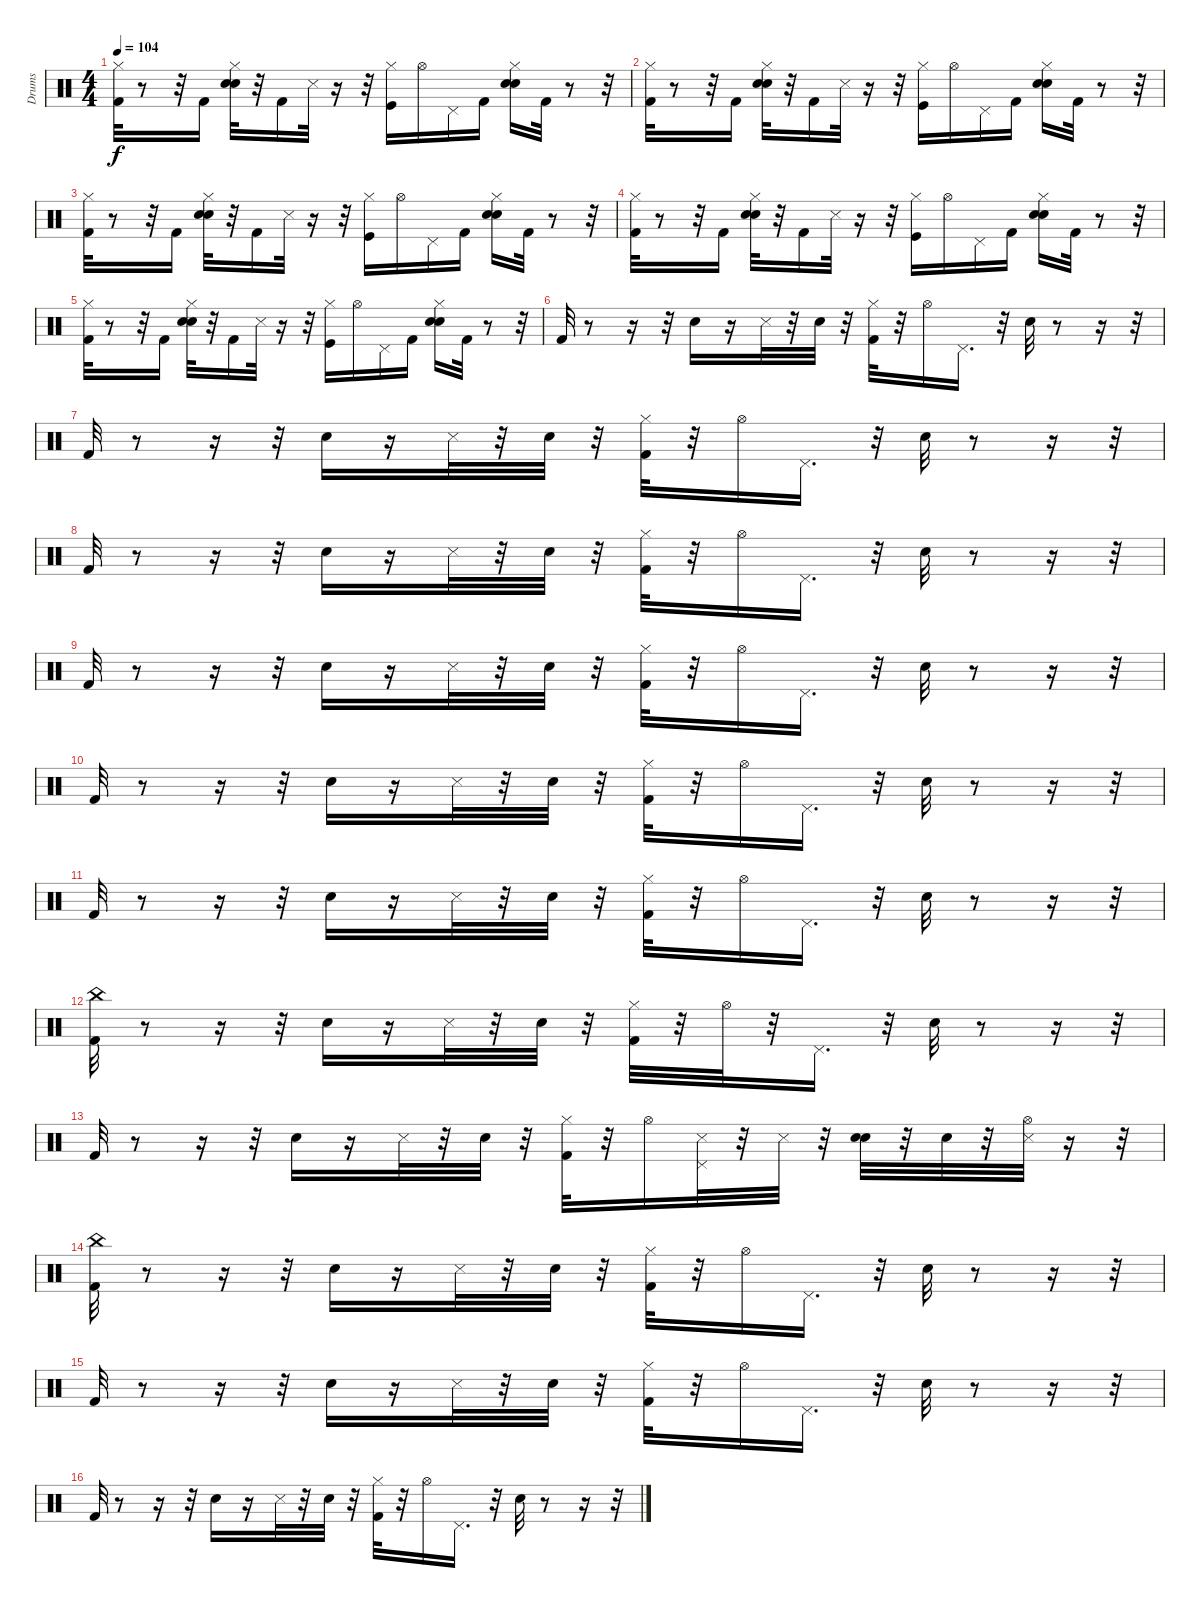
\track ("Drums" "Drums") {instrument percussion}
\staff {score}
\articulation defaults
\ts (4 4)
\tempo 104
\clef neutral
\ks c
("Kick (hit) 2" "Hi-Hat (closed)").32{dy f} r.8 r.32 "Kick (hit) 2".16 ("Electric Snare (hit)" "Snare (hit) 2" "Hi-Hat (closed)").32 r.32 "Kick (hit) 2".16 "Snare (side stick) 3".32 r.16 r.32 ("Kick (hit)" "Hi-Hat (closed)").16 "Hi-Hat (open)".16 "Pedal Hi-Hat (hit)".16 "Kick (hit) 2".16 ("Electric Snare (hit)" "Snare (hit) 2" "Hi-Hat (closed)").16 "Kick (hit) 2".32 r.8 r.32 |
("Kick (hit) 2" "Hi-Hat (closed)").32 r.8 r.32 "Kick (hit) 2".16 ("Electric Snare (hit)" "Snare (hit) 2" "Hi-Hat (closed)").32 r.32 "Kick (hit) 2".16 "Snare (side stick) 3".32 r.16 r.32 ("Kick (hit)" "Hi-Hat (closed)").16 "Hi-Hat (open)".16 "Pedal Hi-Hat (hit)".16 "Kick (hit) 2".16 ("Electric Snare (hit)" "Snare (hit) 2" "Hi-Hat (closed)").16 "Kick (hit) 2".32 r.8 r.32 |
("Kick (hit) 2" "Hi-Hat (closed)").32 r.8 r.32 "Kick (hit) 2".16 ("Electric Snare (hit)" "Snare (hit) 2" "Hi-Hat (closed)").32 r.32 "Kick (hit) 2".16 "Snare (side stick) 3".32 r.16 r.32 ("Kick (hit)" "Hi-Hat (closed)").16 "Hi-Hat (open)".16 "Pedal Hi-Hat (hit)".16 "Kick (hit) 2".16 ("Electric Snare (hit)" "Snare (hit) 2" "Hi-Hat (closed)").16 "Kick (hit) 2".32 r.8 r.32 |
("Kick (hit) 2" "Hi-Hat (closed)").32 r.8 r.32 "Kick (hit) 2".16 ("Electric Snare (hit)" "Snare (hit) 2" "Hi-Hat (closed)").32 r.32 "Kick (hit) 2".16 "Snare (side stick) 3".32 r.16 r.32 ("Kick (hit)" "Hi-Hat (closed)").16 "Hi-Hat (open)".16 "Pedal Hi-Hat (hit)".16 "Kick (hit) 2".16 ("Electric Snare (hit)" "Snare (hit) 2" "Hi-Hat (closed)").16 "Kick (hit) 2".32 r.8 r.32 |
("Kick (hit) 2" "Hi-Hat (closed)").32 r.8 r.32 "Kick (hit) 2".16 ("Electric Snare (hit)" "Snare (hit) 2" "Hi-Hat (closed)").32 r.32 "Kick (hit) 2".16 "Snare (side stick) 3".32 r.16 r.32 ("Kick (hit)" "Hi-Hat (closed)").16 "Hi-Hat (open)".16 "Pedal Hi-Hat (hit)".16 "Kick (hit) 2".16 ("Electric Snare (hit)" "Snare (hit) 2" "Hi-Hat (closed)").16 "Kick (hit) 2".32 r.8 r.32 |
"Kick (hit) 2".32 r.8 r.16 r.32 "Snare (hit) 2".16 r.16 "Snare (side stick) 3".32 r.32 "Electric Snare (hit)".32 r.32 ("Kick (hit) 2" "Hi-Hat (closed)").32 r.32 "Hi-Hat (open)".16 "Pedal Hi-Hat (hit)".16{d} r.32 "Snare (hit) 2".32 r.8 r.16 r.32 |
"Kick (hit) 2".32 r.8 r.16 r.32 "Snare (hit) 2".16 r.16 "Snare (side stick) 3".32 r.32 "Electric Snare (hit)".32 r.32 ("Kick (hit) 2" "Hi-Hat (closed)").32 r.32 "Hi-Hat (open)".16 "Pedal Hi-Hat (hit)".16{d} r.32 "Snare (hit) 2".32 r.8 r.16 r.32 |
"Kick (hit) 2".32 r.8 r.16 r.32 "Snare (hit) 2".16 r.16 "Snare (side stick) 3".32 r.32 "Electric Snare (hit)".32 r.32 ("Kick (hit) 2" "Hi-Hat (closed)").32 r.32 "Hi-Hat (open)".16 "Pedal Hi-Hat (hit)".16{d} r.32 "Snare (hit) 2".32 r.8 r.16 r.32 |
"Kick (hit) 2".32 r.8 r.16 r.32 "Snare (hit) 2".16 r.16 "Snare (side stick) 3".32 r.32 "Electric Snare (hit)".32 r.32 ("Kick (hit) 2" "Hi-Hat (closed)").32 r.32 "Hi-Hat (open)".16 "Pedal Hi-Hat (hit)".16{d} r.32 "Snare (hit) 2".32 r.8 r.16 r.32 |
"Kick (hit) 2".32 r.8 r.16 r.32 "Snare (hit) 2".16 r.16 "Snare (side stick) 3".32 r.32 "Electric Snare (hit)".32 r.32 ("Kick (hit) 2" "Hi-Hat (closed)").32 r.32 "Hi-Hat (open)".16 "Pedal Hi-Hat (hit)".16{d} r.32 "Snare (hit) 2".32 r.8 r.16 r.32 |
"Kick (hit) 2".32 r.8 r.16 r.32 "Snare (hit) 2".16 r.16 "Snare (side stick) 3".32 r.32 "Electric Snare (hit)".32 r.32 ("Kick (hit) 2" "Hi-Hat (closed)").32 r.32 "Hi-Hat (open)".16 "Pedal Hi-Hat (hit)".16{d} r.32 "Snare (hit) 2".32 r.8 r.16 r.32 |
("Kick (hit) 2" "China (hit)").32 r.8 r.16 r.32 "Snare (hit) 2".16 r.16 "Snare (side stick) 3".32 r.32 "Electric Snare (hit)".32 r.32 ("Kick (hit) 2" "Hi-Hat (closed)").32 r.32 "Hi-Hat (open)".32 r.32 "Pedal Hi-Hat (hit)".16{d} r.32 "Snare (hit) 2".32 r.8 r.16 r.32 |
"Kick (hit) 2".32 r.8 r.16 r.32 "Snare (hit) 2".16 r.16 "Snare (side stick) 3".32 r.32 "Electric Snare (hit)".32 r.32 ("Kick (hit) 2" "Hi-Hat (closed)").32 r.32 "Hi-Hat (open)".16 ("Snare (side stick) 3" "Pedal Hi-Hat (hit)").32 r.32 "Snare (side stick) 3".32 r.32 ("Snare (hit) 2" "Electric Snare (hit)").32 r.32 "Electric Snare (hit)".32 r.32 ("Snare (side stick) 3" "Hi-Hat (open)").32 r.16 r.32 |
("Kick (hit) 2" "China (hit)").32 r.8 r.16 r.32 "Snare (hit) 2".16 r.16 "Snare (side stick) 3".32 r.32 "Electric Snare (hit)".32 r.32 ("Kick (hit) 2" "Hi-Hat (closed)").32 r.32 "Hi-Hat (open)".16 "Pedal Hi-Hat (hit)".16{d} r.32 "Snare (hit) 2".32 r.8 r.16 r.32 |
"Kick (hit) 2".32 r.8 r.16 r.32 "Snare (hit) 2".16 r.16 "Snare (side stick) 3".32 r.32 "Electric Snare (hit)".32 r.32 ("Kick (hit) 2" "Hi-Hat (closed)").32 r.32 "Hi-Hat (open)".16 "Pedal Hi-Hat (hit)".16{d} r.32 "Snare (hit) 2".32 r.8 r.16 r.32 |
"Kick (hit) 2".32 r.8 r.16 r.32 "Snare (hit) 2".16 r.16 "Snare (side stick) 3".32 r.32 "Electric Snare (hit)".32 r.32 ("Kick (hit) 2" "Hi-Hat (closed)").32 r.32 "Hi-Hat (open)".16 "Pedal Hi-Hat (hit)".16{d} r.32 "Snare (hit) 2".32 r.8 r.16 r.32
